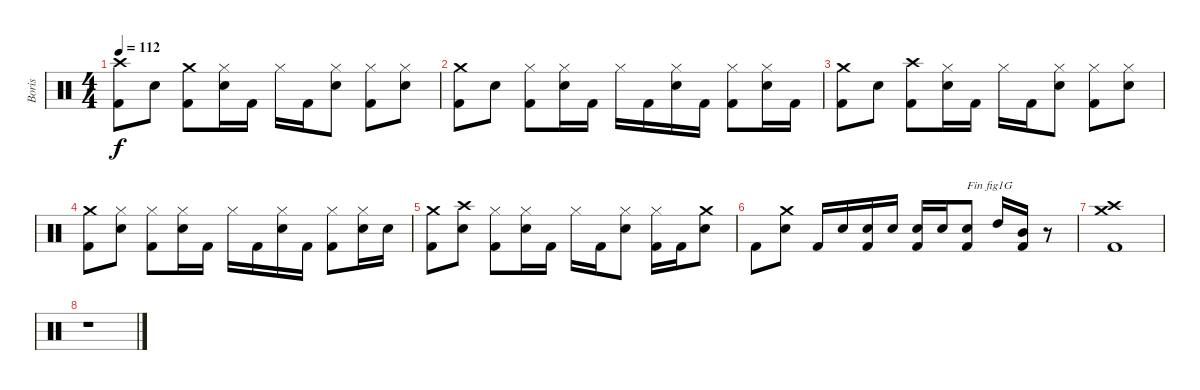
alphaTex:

\track ("Boris" "Boris") {instrument percussion}
\staff {score}
\articulation defaults
\ts (4 4)
\tempo 112
\clef neutral
\ks c
("Kick (hit) 2" "Crash high (hit)").8{dy f} "Electric Snare (hit)".8 ("Kick (hit) 2" "Crash medium (hit)").8 ("Electric Snare (hit)" "Hi-Hat (closed)").16 "Kick (hit) 2".16 "Hi-Hat (closed)".16 "Kick (hit) 2".16 ("Electric Snare (hit)" "Hi-Hat (closed)").8 ("Kick (hit) 2" "Hi-Hat (closed)").8 ("Electric Snare (hit)" "Hi-Hat (closed)").8 |
("Kick (hit) 2" "Crash medium (hit)").8 "Electric Snare (hit)".8 ("Kick (hit) 2" "Hi-Hat (closed)").8 ("Electric Snare (hit)" "Hi-Hat (closed)").16 "Kick (hit) 2".16 "Hi-Hat (closed)".16 "Kick (hit) 2".16 ("Electric Snare (hit)" "Hi-Hat (closed)").16 "Kick (hit) 2".16 ("Kick (hit) 2" "Hi-Hat (closed)").8 ("Electric Snare (hit)" "Hi-Hat (closed)").16 "Kick (hit) 2".16 |
("Kick (hit) 2" "Crash medium (hit)").8 "Electric Snare (hit)".8 ("Kick (hit) 2" "Crash high (hit)").8 ("Electric Snare (hit)" "Hi-Hat (closed)").16 "Kick (hit) 2".16 "Hi-Hat (closed)".16 "Kick (hit) 2".16 ("Electric Snare (hit)" "Hi-Hat (closed)").8 ("Kick (hit) 2" "Hi-Hat (closed)").8 ("Electric Snare (hit)" "Hi-Hat (closed)").8 |
("Kick (hit) 2" "Crash medium (hit)").8 ("Electric Snare (hit)" "Hi-Hat (closed)").8 ("Kick (hit) 2" "Hi-Hat (closed)").8 ("Electric Snare (hit)" "Hi-Hat (closed)").16 "Kick (hit) 2".16 "Hi-Hat (closed)".16 "Kick (hit) 2".16 ("Electric Snare (hit)" "Hi-Hat (closed)").16 "Kick (hit) 2".16 ("Kick (hit) 2" "Hi-Hat (closed)").8 ("Electric Snare (hit)" "Hi-Hat (closed)").16 "Electric Snare (hit)".16 |
("Kick (hit) 2" "Crash medium (hit)").8 ("Electric Snare (hit)" "Crash high (hit)").8 ("Kick (hit) 2" "Hi-Hat (closed)").8 ("Electric Snare (hit)" "Hi-Hat (closed)").16 "Kick (hit) 2".16 "Hi-Hat (closed)".16 "Kick (hit) 2".16 ("Electric Snare (hit)" "Hi-Hat (closed)").8 ("Kick (hit) 2" "Hi-Hat (closed)").16 "Kick (hit) 2".16 ("Electric Snare (hit)" "Crash medium (hit)").8 |
"Kick (hit) 2".8 ("Electric Snare (hit)" "Crash medium (hit)").8 "Kick (hit) 2".16 "Electric Snare (hit)".16 ("Kick (hit) 2" "Electric Snare (hit)").16 "Electric Snare (hit)".16 ("Kick (hit) 2" "Electric Snare (hit)").16 "Electric Snare (hit)".16 ("Kick (hit) 2" "Electric Snare (hit)").8{txt "Fin fig1G"} "High Tom (hit)".16 ("Kick (hit) 2" "Mid Tom (hit)").16 r.8 |
("Kick (hit) 2" "Crash high (hit)" "Crash medium (hit)").1 |
r.1
